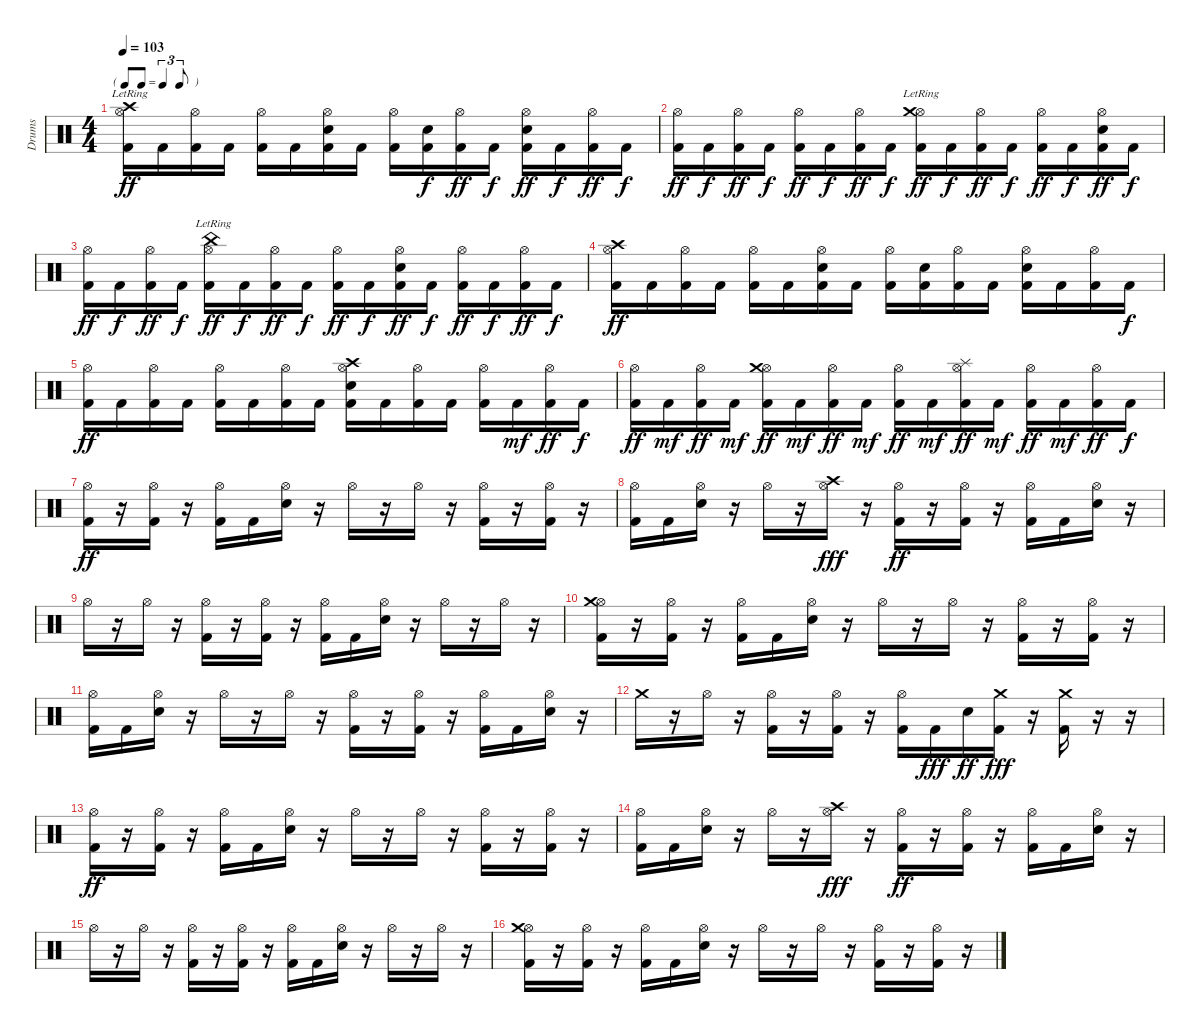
\track ("Drums" "Drums") {instrument percussion}
\staff {score}
\articulation defaults
\ts (4 4)
\tf triplet8th
\tempo 103
\clef neutral
\ks c
("Hi-Hat (open)" "Crash high (hit)"{lr} "Kick (hit) 2").16{dy ff} "Kick (hit) 2".16 ("Hi-Hat (open)" "Kick (hit) 2").16 "Kick (hit) 2".16 ("Hi-Hat (open)" "Kick (hit) 2").16 "Kick (hit) 2".16 ("Hi-Hat (open)" "Electric Snare (hit)" "Kick (hit) 2").16 "Kick (hit) 2".16 ("Hi-Hat (open)" "Kick (hit) 2").16 ("Electric Snare (hit)" "Kick (hit) 2").16{dy f} ("Hi-Hat (open)" "Kick (hit) 2").16{dy ff} "Kick (hit) 2".16{dy f} ("Hi-Hat (open)" "Electric Snare (hit)" "Kick (hit) 2").16{dy ff} "Kick (hit) 2".16{dy f} ("Hi-Hat (open)" "Kick (hit) 2").16{dy ff} "Kick (hit) 2".16{dy f} |
("Hi-Hat (open)" "Kick (hit) 2").16{dy ff} "Kick (hit) 2".16{dy f} ("Hi-Hat (open)" "Kick (hit) 2").16{dy ff} "Kick (hit) 2".16{dy f} ("Hi-Hat (open)" "Kick (hit) 2").16{dy ff} "Kick (hit) 2".16{dy f} ("Hi-Hat (open)" "Kick (hit) 2").16{dy ff} "Kick (hit) 2".16{dy f} ("Hi-Hat (open)" "Crash medium (hit)"{lr} "Kick (hit) 2").16{dy ff} "Kick (hit) 2".16{dy f} ("Hi-Hat (open)" "Kick (hit) 2").16{dy ff} "Kick (hit) 2".16{dy f} ("Hi-Hat (open)" "Kick (hit) 2").16{dy ff} "Kick (hit) 2".16{dy f} ("Hi-Hat (open)" "Electric Snare (hit)" "Kick (hit) 2").16{dy ff} "Kick (hit) 2".16{dy f} |
("Hi-Hat (open)" "Kick (hit) 2").16{dy ff} "Kick (hit) 2".16{dy f} ("Hi-Hat (open)" "Kick (hit) 2").16{dy ff} "Kick (hit) 2".16{dy f} ("Hi-Hat (open)" "China (hit)"{lr} "Kick (hit) 2").16{dy ff} "Kick (hit) 2".16{dy f} ("Hi-Hat (open)" "Kick (hit) 2").16{dy ff} "Kick (hit) 2".16{dy f} ("Hi-Hat (open)" "Kick (hit) 2").16{dy ff} "Kick (hit) 2".16{dy f} ("Hi-Hat (open)" "Electric Snare (hit)" "Kick (hit) 2").16{dy ff} "Kick (hit) 2".16{dy f} ("Hi-Hat (open)" "Kick (hit) 2").16{dy ff} "Kick (hit) 2".16{dy f} ("Hi-Hat (open)" "Kick (hit) 2").16{dy ff} "Kick (hit) 2".16{dy f} |
("Hi-Hat (open)" "Crash high (hit)" "Kick (hit) 2").16{dy ff} "Kick (hit) 2".16 ("Hi-Hat (open)" "Kick (hit) 2").16 "Kick (hit) 2".16 ("Hi-Hat (open)" "Kick (hit) 2").16 "Kick (hit) 2".16 ("Hi-Hat (open)" "Electric Snare (hit)" "Kick (hit) 2").16 "Kick (hit) 2".16 ("Hi-Hat (open)" "Kick (hit) 2").16 ("Electric Snare (hit)" "Kick (hit) 2").16 ("Hi-Hat (open)" "Kick (hit) 2").16 "Kick (hit) 2".16 ("Hi-Hat (open)" "Electric Snare (hit)" "Kick (hit) 2").16 "Kick (hit) 2".16 ("Hi-Hat (open)" "Kick (hit) 2").16 "Kick (hit) 2".16{dy f} |
("Hi-Hat (open)" "Kick (hit) 2").16{dy ff} "Kick (hit) 2".16 ("Hi-Hat (open)" "Kick (hit) 2").16 "Kick (hit) 2".16 ("Hi-Hat (open)" "Kick (hit) 2").16 "Kick (hit) 2".16 ("Hi-Hat (open)" "Kick (hit) 2").16 "Kick (hit) 2".16 ("Hi-Hat (open)" "Electric Snare (hit)" "Crash high (hit)" "Kick (hit) 2").16 "Kick (hit) 2".16 ("Hi-Hat (open)" "Kick (hit) 2").16 "Kick (hit) 2".16 ("Hi-Hat (open)" "Kick (hit) 2").16 "Kick (hit) 2".16{dy mf} ("Hi-Hat (open)" "Kick (hit) 2").16{dy ff} "Kick (hit) 2".16{dy f} |
("Hi-Hat (open)" "Kick (hit) 2").16{dy ff} "Kick (hit) 2".16{dy mf} ("Hi-Hat (open)" "Kick (hit) 2").16{dy ff} "Kick (hit) 2".16{dy mf} ("Hi-Hat (open)" "Crash medium (hit)" "Kick (hit) 2").16{dy ff} "Kick (hit) 2".16{dy mf} ("Hi-Hat (open)" "Kick (hit) 2").16{dy ff} "Kick (hit) 2".16{dy mf} ("Hi-Hat (open)" "Kick (hit) 2").16{dy ff} "Kick (hit) 2".16{dy mf} ("Hi-Hat (open)" "Splash (hit)" "Kick (hit) 2").16{dy ff} "Kick (hit) 2".16{dy mf} ("Hi-Hat (open)" "Kick (hit) 2").16{dy ff} "Kick (hit) 2".16{dy mf} ("Hi-Hat (open)" "Kick (hit) 2").16{dy ff} "Kick (hit) 2".16{dy f} |
("Hi-Hat (open)" "Kick (hit) 2").16{dy ff} r.16 ("Hi-Hat (open)" "Kick (hit) 2").16 r.16 ("Hi-Hat (open)" "Kick (hit) 2").16 "Kick (hit) 2".16 ("Hi-Hat (open)" "Electric Snare (hit)").16 r.16 "Hi-Hat (open)".16 r.16 "Hi-Hat (open)".16 r.16 ("Hi-Hat (open)" "Kick (hit) 2").16 r.16 ("Hi-Hat (open)" "Kick (hit) 2").16 r.16 |
("Hi-Hat (open)" "Kick (hit) 2").16 "Kick (hit) 2".16 ("Hi-Hat (open)" "Electric Snare (hit)").16 r.16 "Hi-Hat (open)".16 r.16 ("Hi-Hat (open)" "Crash high (hit)").16{dy fff} r.16 ("Hi-Hat (open)" "Kick (hit) 2").16{dy ff} r.16 ("Hi-Hat (open)" "Kick (hit) 2").16 r.16 ("Hi-Hat (open)" "Kick (hit) 2").16 "Kick (hit) 2".16 ("Hi-Hat (open)" "Electric Snare (hit)").16 r.16 |
"Hi-Hat (open)".16 r.16 "Hi-Hat (open)".16 r.16 ("Hi-Hat (open)" "Kick (hit) 2").16 r.16 ("Hi-Hat (open)" "Kick (hit) 2").16 r.16 ("Hi-Hat (open)" "Kick (hit) 2").16 "Kick (hit) 2".16 ("Hi-Hat (open)" "Electric Snare (hit)").16 r.16 "Hi-Hat (open)".16 r.16 "Hi-Hat (open)".16 r.16 |
("Hi-Hat (open)" "Crash medium (hit)" "Kick (hit) 2").16 r.16 ("Hi-Hat (open)" "Kick (hit) 2").16 r.16 ("Hi-Hat (open)" "Kick (hit) 2").16 "Kick (hit) 2".16 ("Hi-Hat (open)" "Electric Snare (hit)").16 r.16 "Hi-Hat (open)".16 r.16 "Hi-Hat (open)".16 r.16 ("Hi-Hat (open)" "Kick (hit) 2").16 r.16 ("Hi-Hat (open)" "Kick (hit) 2").16 r.16 |
("Hi-Hat (open)" "Kick (hit) 2").16 "Kick (hit) 2".16 ("Hi-Hat (open)" "Electric Snare (hit)").16 r.16 "Hi-Hat (open)".16 r.16 "Hi-Hat (open)".16 r.16 ("Hi-Hat (open)" "Kick (hit) 2").16 r.16 ("Hi-Hat (open)" "Kick (hit) 2").16 r.16 ("Hi-Hat (open)" "Kick (hit) 2").16 "Kick (hit) 2".16 ("Hi-Hat (open)" "Electric Snare (hit)").16 r.16 |
"Crash medium (hit)".16 r.16 "Hi-Hat (open)".16 r.16 ("Hi-Hat (open)" "Kick (hit) 2").16 r.16 ("Hi-Hat (open)" "Kick (hit) 2").16 r.16 ("Hi-Hat (open)" "Kick (hit) 2").16 "Kick (hit) 2".16{dy fff} "Electric Snare (hit)".16{dy ff} ("Crash medium (hit)" "Kick (hit) 2").16{dy fff} r.16 ("Crash medium (hit)" "Kick (hit) 2").16 r.16 r.16 |
("Hi-Hat (open)" "Kick (hit) 2").16{dy ff} r.16 ("Hi-Hat (open)" "Kick (hit) 2").16 r.16 ("Hi-Hat (open)" "Kick (hit) 2").16 "Kick (hit) 2".16 ("Hi-Hat (open)" "Electric Snare (hit)").16 r.16 "Hi-Hat (open)".16 r.16 "Hi-Hat (open)".16 r.16 ("Hi-Hat (open)" "Kick (hit) 2").16 r.16 ("Hi-Hat (open)" "Kick (hit) 2").16 r.16 |
("Hi-Hat (open)" "Kick (hit) 2").16 "Kick (hit) 2".16 ("Hi-Hat (open)" "Electric Snare (hit)").16 r.16 "Hi-Hat (open)".16 r.16 ("Hi-Hat (open)" "Crash high (hit)").16{dy fff} r.16 ("Hi-Hat (open)" "Kick (hit) 2").16{dy ff} r.16 ("Hi-Hat (open)" "Kick (hit) 2").16 r.16 ("Hi-Hat (open)" "Kick (hit) 2").16 "Kick (hit) 2".16 ("Hi-Hat (open)" "Electric Snare (hit)").16 r.16 |
"Hi-Hat (open)".16 r.16 "Hi-Hat (open)".16 r.16 ("Hi-Hat (open)" "Kick (hit) 2").16 r.16 ("Hi-Hat (open)" "Kick (hit) 2").16 r.16 ("Hi-Hat (open)" "Kick (hit) 2").16 "Kick (hit) 2".16 ("Hi-Hat (open)" "Electric Snare (hit)").16 r.16 "Hi-Hat (open)".16 r.16 "Hi-Hat (open)".16 r.16 |
("Hi-Hat (open)" "Crash medium (hit)" "Kick (hit) 2").16 r.16 ("Hi-Hat (open)" "Kick (hit) 2").16 r.16 ("Hi-Hat (open)" "Kick (hit) 2").16 "Kick (hit) 2".16 ("Hi-Hat (open)" "Electric Snare (hit)").16 r.16 "Hi-Hat (open)".16 r.16 "Hi-Hat (open)".16 r.16 ("Hi-Hat (open)" "Kick (hit) 2").16 r.16 ("Hi-Hat (open)" "Kick (hit) 2").16 r.16
